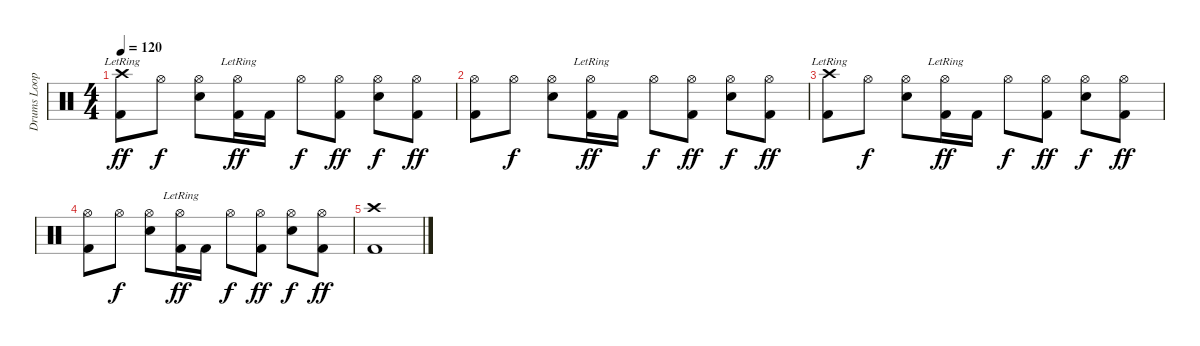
\track ("Drums Looping" "Drums Loop") {instrument percussion}
\staff {score}
\articulation defaults
\ts (4 4)
\tempo 120
\clef neutral
\ks c
("Crash high (hit)"{lr} "Kick (hit) 2").8{dy ff} "Hi-Hat (open)".8{dy f} ("Hi-Hat (open)" "Snare (hit) 2").8 ("Hi-Hat (open)"{lr} "Kick (hit) 2").16{dy ff} "Kick (hit) 2".16 "Hi-Hat (open)".8{dy f} ("Hi-Hat (open)" "Kick (hit) 2").8{dy ff} ("Hi-Hat (open)" "Snare (hit) 2").8{dy f} ("Hi-Hat (open)" "Kick (hit) 2").8{dy ff} |
("Hi-Hat (open)" "Kick (hit) 2").8 "Hi-Hat (open)".8{dy f} ("Hi-Hat (open)" "Snare (hit) 2").8 ("Hi-Hat (open)"{lr} "Kick (hit) 2").16{dy ff} "Kick (hit) 2".16 "Hi-Hat (open)".8{dy f} ("Hi-Hat (open)" "Kick (hit) 2").8{dy ff} ("Hi-Hat (open)" "Snare (hit) 2").8{dy f} ("Hi-Hat (open)" "Kick (hit) 2").8{dy ff} |
("Crash high (hit)"{lr} "Kick (hit) 2").8 "Hi-Hat (open)".8{dy f} ("Hi-Hat (open)" "Snare (hit) 2").8 ("Hi-Hat (open)"{lr} "Kick (hit) 2").16{dy ff} "Kick (hit) 2".16 "Hi-Hat (open)".8{dy f} ("Hi-Hat (open)" "Kick (hit) 2").8{dy ff} ("Hi-Hat (open)" "Snare (hit) 2").8{dy f} ("Hi-Hat (open)" "Kick (hit) 2").8{dy ff} |
("Hi-Hat (open)" "Kick (hit) 2").8 "Hi-Hat (open)".8{dy f} ("Hi-Hat (open)" "Snare (hit) 2").8 ("Hi-Hat (open)"{lr} "Kick (hit) 2").16{dy ff} "Kick (hit) 2".16 "Hi-Hat (open)".8{dy f} ("Hi-Hat (open)" "Kick (hit) 2").8{dy ff} ("Hi-Hat (open)" "Snare (hit) 2").8{dy f} ("Hi-Hat (open)" "Kick (hit) 2").8{dy ff} |
("Crash high (hit)" "Kick (hit) 2").1
